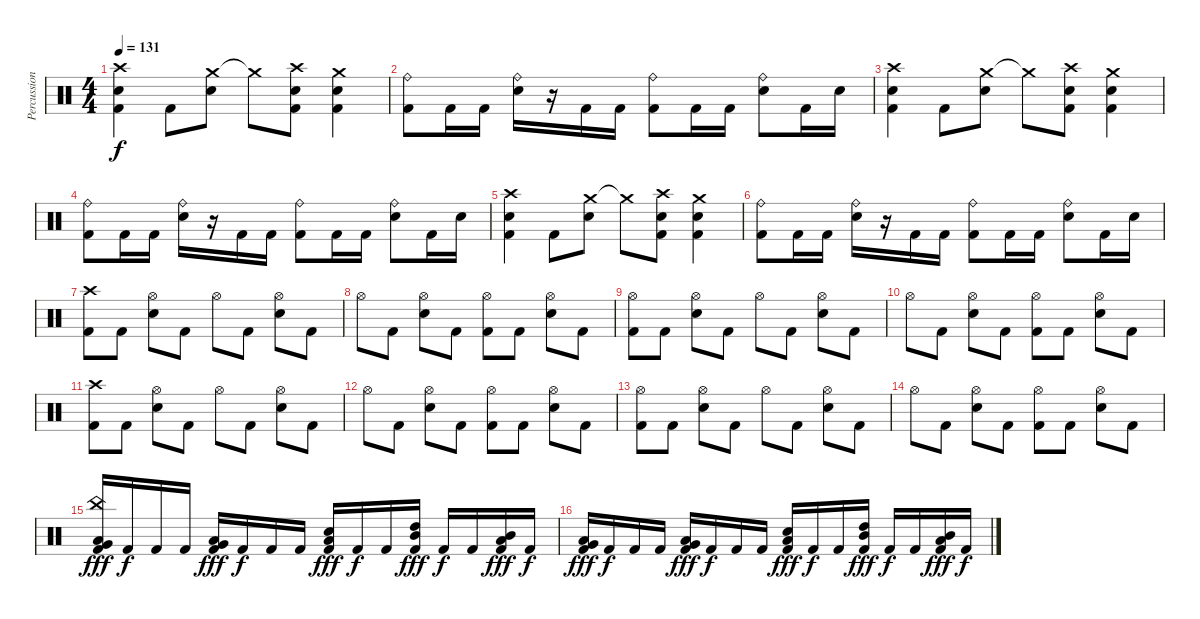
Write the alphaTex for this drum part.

\track ("Percussion" "Percussion") {instrument percussion}
\staff {score}
\articulation defaults
\ts (4 4)
\tempo 131
\clef neutral
\ks c
("Crash high (hit)" "Electric Snare (hit)" "Kick (hit) 2").4{dy f} "Kick (hit) 2".8 ("Crash medium (hit)" "Electric Snare (hit)").8 "Crash medium (hit)"{t}.8 ("Crash high (hit)" "Electric Snare (hit)" "Kick (hit) 2").8 ("Crash medium (hit)" "Electric Snare (hit)" "Kick (hit) 2").4 |
("Ride (bell)" "Kick (hit) 2").8 "Kick (hit) 2".16 "Kick (hit) 2".16 ("Ride (bell)" "Electric Snare (hit)").16 r.16 "Kick (hit) 2".16 "Kick (hit) 2".16 ("Ride (bell)" "Kick (hit) 2").8 "Kick (hit) 2".16 "Kick (hit) 2".16 ("Ride (bell)" "Electric Snare (hit)").8 "Kick (hit) 2".16 "Electric Snare (hit)".16 |
("Crash high (hit)" "Electric Snare (hit)" "Kick (hit) 2").4 "Kick (hit) 2".8 ("Crash medium (hit)" "Electric Snare (hit)").8 "Crash medium (hit)"{t}.8 ("Crash high (hit)" "Electric Snare (hit)" "Kick (hit) 2").8 ("Crash medium (hit)" "Electric Snare (hit)" "Kick (hit) 2").4 |
("Ride (bell)" "Kick (hit) 2").8 "Kick (hit) 2".16 "Kick (hit) 2".16 ("Ride (bell)" "Electric Snare (hit)").16 r.16 "Kick (hit) 2".16 "Kick (hit) 2".16 ("Ride (bell)" "Kick (hit) 2").8 "Kick (hit) 2".16 "Kick (hit) 2".16 ("Ride (bell)" "Electric Snare (hit)").8 "Kick (hit) 2".16 "Electric Snare (hit)".16 |
("Crash high (hit)" "Electric Snare (hit)" "Kick (hit) 2").4 "Kick (hit) 2".8 ("Crash medium (hit)" "Electric Snare (hit)").8 "Crash medium (hit)"{t}.8 ("Crash high (hit)" "Electric Snare (hit)" "Kick (hit) 2").8 ("Crash medium (hit)" "Electric Snare (hit)" "Kick (hit) 2").4 |
("Ride (bell)" "Kick (hit) 2").8 "Kick (hit) 2".16 "Kick (hit) 2".16 ("Ride (bell)" "Electric Snare (hit)").16 r.16 "Kick (hit) 2".16 "Kick (hit) 2".16 ("Ride (bell)" "Kick (hit) 2").8 "Kick (hit) 2".16 "Kick (hit) 2".16 ("Ride (bell)" "Electric Snare (hit)").8 "Kick (hit) 2".16 "Electric Snare (hit)".16 |
("Crash high (hit)" "Kick (hit) 2").8 "Kick (hit) 2".8 ("Hi-Hat (open)" "Electric Snare (hit)").8 "Kick (hit) 2".8 "Hi-Hat (open)".8 "Kick (hit) 2".8 ("Hi-Hat (open)" "Electric Snare (hit)").8 "Kick (hit) 2".8 |
"Hi-Hat (open)".8 "Kick (hit) 2".8 ("Hi-Hat (open)" "Electric Snare (hit)").8 "Kick (hit) 2".8 ("Hi-Hat (open)" "Kick (hit) 2").8 "Kick (hit) 2".8 ("Hi-Hat (open)" "Electric Snare (hit)").8 "Kick (hit) 2".8 |
("Hi-Hat (open)" "Kick (hit) 2").8 "Kick (hit) 2".8 ("Hi-Hat (open)" "Electric Snare (hit)").8 "Kick (hit) 2".8 "Hi-Hat (open)".8 "Kick (hit) 2".8 ("Hi-Hat (open)" "Electric Snare (hit)").8 "Kick (hit) 2".8 |
"Hi-Hat (open)".8 "Kick (hit) 2".8 ("Hi-Hat (open)" "Electric Snare (hit)").8 "Kick (hit) 2".8 ("Hi-Hat (open)" "Kick (hit) 2").8 "Kick (hit) 2".8 ("Hi-Hat (open)" "Electric Snare (hit)").8 "Kick (hit) 2".8 |
("Crash high (hit)" "Kick (hit) 2").8 "Kick (hit) 2".8 ("Hi-Hat (open)" "Electric Snare (hit)").8 "Kick (hit) 2".8 "Hi-Hat (open)".8 "Kick (hit) 2".8 ("Hi-Hat (open)" "Electric Snare (hit)").8 "Kick (hit) 2".8 |
"Hi-Hat (open)".8 "Kick (hit) 2".8 ("Hi-Hat (open)" "Electric Snare (hit)").8 "Kick (hit) 2".8 ("Hi-Hat (open)" "Kick (hit) 2").8 "Kick (hit) 2".8 ("Hi-Hat (open)" "Electric Snare (hit)").8 "Kick (hit) 2".8 |
("Hi-Hat (open)" "Kick (hit) 2").8 "Kick (hit) 2".8 ("Hi-Hat (open)" "Electric Snare (hit)").8 "Kick (hit) 2".8 "Hi-Hat (open)".8 "Kick (hit) 2".8 ("Hi-Hat (open)" "Electric Snare (hit)").8 "Kick (hit) 2".8 |
"Hi-Hat (open)".8 "Kick (hit) 2".8 ("Hi-Hat (open)" "Electric Snare (hit)").8 "Kick (hit) 2".8 ("Hi-Hat (open)" "Kick (hit) 2").8 "Kick (hit) 2".8 ("Hi-Hat (open)" "Electric Snare (hit)").8 "Kick (hit) 2".8 |
("China (hit)" "Low Tom (hit)" "Very Low Tom (hit)" "Kick (hit) 2").16{dy fff} "Kick (hit) 2".16{dy f} "Kick (hit) 2".16 "Kick (hit) 2".16 ("Very Low Tom (hit)" "Low Floor Tom (hit)" "Kick (hit) 2").16{dy fff} "Kick (hit) 2".16{dy f} "Kick (hit) 2".16 "Kick (hit) 2".16 ("Low Floor Tom (hit)" "Electric Snare (hit)" "Kick (hit) 2").16{dy fff} "Kick (hit) 2".16{dy f} "Kick (hit) 2".16 ("High Tom (hit)" "Mid Tom (hit)" "Kick (hit) 2").16{dy fff} "Kick (hit) 2".16{dy f} "Kick (hit) 2".16 ("Mid Tom (hit)" "Low Tom (hit)" "Kick (hit) 2").16{dy fff} "Kick (hit) 2".16{dy f} |
("Low Tom (hit)" "Very Low Tom (hit)" "Kick (hit) 2").16{dy fff} "Kick (hit) 2".16{dy f} "Kick (hit) 2".16 "Kick (hit) 2".16 ("Very Low Tom (hit)" "Low Floor Tom (hit)" "Kick (hit) 2").16{dy fff} "Kick (hit) 2".16{dy f} "Kick (hit) 2".16 "Kick (hit) 2".16 ("Low Floor Tom (hit)" "Electric Snare (hit)" "Kick (hit) 2").16{dy fff} "Kick (hit) 2".16{dy f} "Kick (hit) 2".16 ("High Tom (hit)" "Mid Tom (hit)" "Kick (hit) 2").16{dy fff} "Kick (hit) 2".16{dy f} "Kick (hit) 2".16 ("Mid Tom (hit)" "Low Tom (hit)" "Kick (hit) 2").16{dy fff} "Kick (hit) 2".16{dy f}
